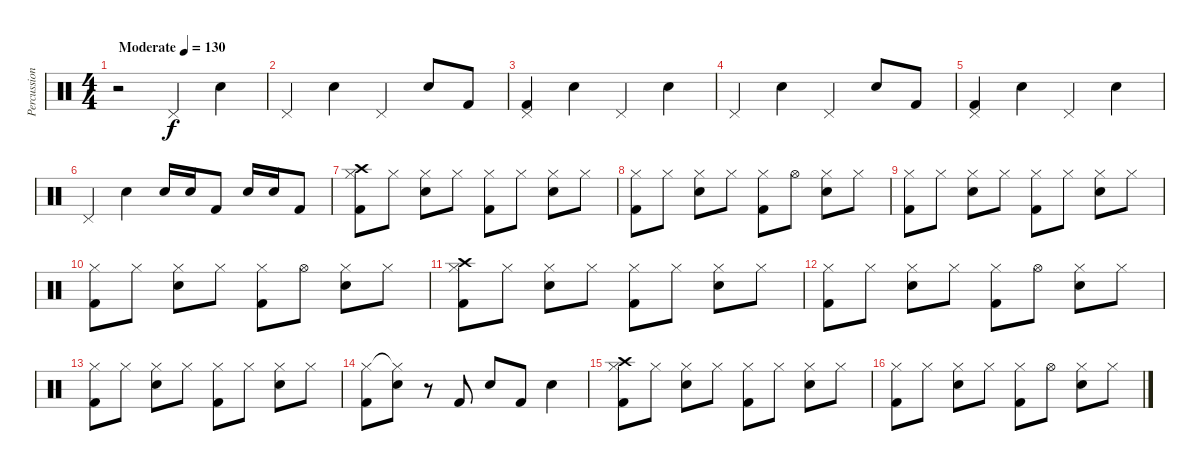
\track ("Percussion" "Percussion") {instrument percussion}
\staff {score}
\articulation defaults
\ts (4 4)
\tempo (130 "Moderate")
\clef neutral
\ks c
r.2{dy f} "Pedal Hi-Hat (hit)".4 "Electric Snare (hit)".4 |
"Pedal Hi-Hat (hit)".4 "Electric Snare (hit)".4 "Pedal Hi-Hat (hit)".4 "Electric Snare (hit)".8 "Kick (hit) 2".8 |
("Kick (hit) 2" "Pedal Hi-Hat (hit)").4 "Electric Snare (hit)".4 "Pedal Hi-Hat (hit)".4 "Electric Snare (hit)".4 |
"Pedal Hi-Hat (hit)".4 "Electric Snare (hit)".4 "Pedal Hi-Hat (hit)".4 "Electric Snare (hit)".8 "Kick (hit) 2".8 |
("Kick (hit) 2" "Pedal Hi-Hat (hit)").4 "Electric Snare (hit)".4 "Pedal Hi-Hat (hit)".4 "Electric Snare (hit)".4 |
"Pedal Hi-Hat (hit)".4 "Electric Snare (hit)".4 "Electric Snare (hit)".16 "Electric Snare (hit)".16 "Kick (hit) 2".8 "Electric Snare (hit)".16 "Electric Snare (hit)".16 "Kick (hit) 2".8 |
("Crash high (hit)" "Hi-Hat (closed)" "Kick (hit) 2").8 "Hi-Hat (closed)".8 ("Hi-Hat (closed)" "Electric Snare (hit)").8 "Hi-Hat (closed)".8 ("Hi-Hat (closed)" "Kick (hit) 2").8 "Hi-Hat (closed)".8 ("Hi-Hat (closed)" "Electric Snare (hit)").8 "Hi-Hat (closed)".8 |
("Hi-Hat (closed)" "Kick (hit) 2").8 "Hi-Hat (closed)".8 ("Hi-Hat (closed)" "Electric Snare (hit)").8 "Hi-Hat (closed)".8 ("Hi-Hat (closed)" "Kick (hit) 2").8 "Hi-Hat (open)".8 ("Hi-Hat (closed)" "Electric Snare (hit)").8 "Hi-Hat (closed)".8 |
("Hi-Hat (closed)" "Kick (hit) 2").8 "Hi-Hat (closed)".8 ("Hi-Hat (closed)" "Electric Snare (hit)").8 "Hi-Hat (closed)".8 ("Hi-Hat (closed)" "Kick (hit) 2").8 "Hi-Hat (closed)".8 ("Hi-Hat (closed)" "Electric Snare (hit)").8 "Hi-Hat (closed)".8 |
("Hi-Hat (closed)" "Kick (hit) 2").8 "Hi-Hat (closed)".8 ("Hi-Hat (closed)" "Electric Snare (hit)").8 "Hi-Hat (closed)".8 ("Hi-Hat (closed)" "Kick (hit) 2").8 "Hi-Hat (open)".8 ("Hi-Hat (closed)" "Electric Snare (hit)").8 "Hi-Hat (closed)".8 |
("Crash high (hit)" "Hi-Hat (closed)" "Kick (hit) 2").8 "Hi-Hat (closed)".8 ("Hi-Hat (closed)" "Electric Snare (hit)").8 "Hi-Hat (closed)".8 ("Hi-Hat (closed)" "Kick (hit) 2").8 "Hi-Hat (closed)".8 ("Hi-Hat (closed)" "Electric Snare (hit)").8 "Hi-Hat (closed)".8 |
("Hi-Hat (closed)" "Kick (hit) 2").8 "Hi-Hat (closed)".8 ("Hi-Hat (closed)" "Electric Snare (hit)").8 "Hi-Hat (closed)".8 ("Hi-Hat (closed)" "Kick (hit) 2").8 "Hi-Hat (open)".8 ("Hi-Hat (closed)" "Electric Snare (hit)").8 "Hi-Hat (closed)".8 |
("Hi-Hat (closed)" "Kick (hit) 2").8 "Hi-Hat (closed)".8 ("Hi-Hat (closed)" "Electric Snare (hit)").8 "Hi-Hat (closed)".8 ("Hi-Hat (closed)" "Kick (hit) 2").8 "Hi-Hat (closed)".8 ("Hi-Hat (closed)" "Electric Snare (hit)").8 "Hi-Hat (closed)".8 |
("Hi-Hat (closed)" "Kick (hit) 2").8 ("Hi-Hat (closed)"{t} "Electric Snare (hit)").8 r.8 "Kick (hit) 2".8 "Electric Snare (hit)".8 "Kick (hit) 2".8 "Electric Snare (hit)".4 |
("Crash high (hit)" "Hi-Hat (closed)" "Kick (hit) 2").8 "Hi-Hat (closed)".8 ("Hi-Hat (closed)" "Electric Snare (hit)").8 "Hi-Hat (closed)".8 ("Hi-Hat (closed)" "Kick (hit) 2").8 "Hi-Hat (closed)".8 ("Hi-Hat (closed)" "Electric Snare (hit)").8 "Hi-Hat (closed)".8 |
("Hi-Hat (closed)" "Kick (hit) 2").8 "Hi-Hat (closed)".8 ("Hi-Hat (closed)" "Electric Snare (hit)").8 "Hi-Hat (closed)".8 ("Hi-Hat (closed)" "Kick (hit) 2").8 "Hi-Hat (open)".8 ("Hi-Hat (closed)" "Electric Snare (hit)").8 "Hi-Hat (closed)".8
